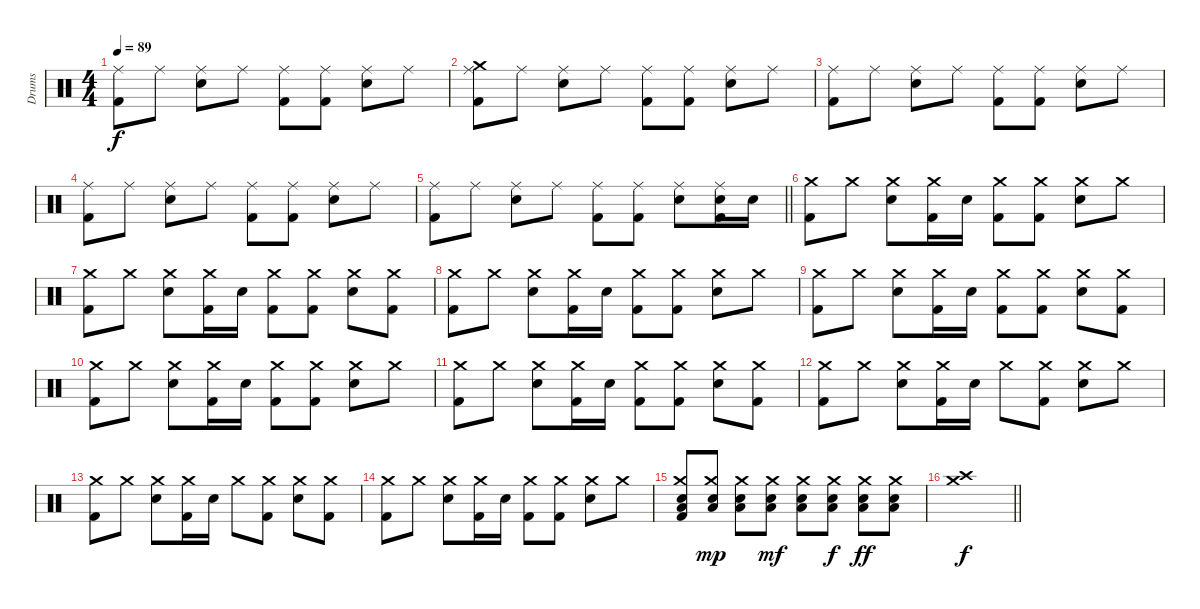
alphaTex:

\track ("Drums" "Drums") {instrument percussion}
\staff {score}
\articulation defaults
\ts (4 4)
\tempo 89
\clef neutral
\ks c
("Ride (middle)" "Kick (hit) 2").8{dy f} "Ride (middle)".8 ("Ride (middle)" "Snare (hit) 2").8 "Ride (middle)".8 ("Ride (middle)" "Kick (hit) 2").8 ("Ride (middle)" "Kick (hit) 2").8 ("Ride (middle)" "Snare (hit) 2").8 "Ride (middle)".8 |
("Crash medium (hit)" "Ride (middle)" "Kick (hit) 2").8 "Ride (middle)".8 ("Ride (middle)" "Snare (hit) 2").8 "Ride (middle)".8 ("Ride (middle)" "Kick (hit) 2").8 ("Ride (middle)" "Kick (hit) 2").8 ("Ride (middle)" "Snare (hit) 2").8 "Ride (middle)".8 |
("Ride (middle)" "Kick (hit) 2").8 "Ride (middle)".8 ("Ride (middle)" "Snare (hit) 2").8 "Ride (middle)".8 ("Ride (middle)" "Kick (hit) 2").8 ("Ride (middle)" "Kick (hit) 2").8 ("Ride (middle)" "Snare (hit) 2").8 "Ride (middle)".8 |
("Ride (middle)" "Kick (hit) 2").8 "Ride (middle)".8 ("Ride (middle)" "Snare (hit) 2").8 "Ride (middle)".8 ("Ride (middle)" "Kick (hit) 2").8 ("Ride (middle)" "Kick (hit) 2").8 ("Ride (middle)" "Snare (hit) 2").8 "Ride (middle)".8 |
\barLineRight lightlight
("Ride (middle)" "Kick (hit) 2").8 "Ride (middle)".8 ("Ride (middle)" "Snare (hit) 2").8 "Ride (middle)".8 ("Ride (middle)" "Kick (hit) 2").8 ("Ride (middle)" "Kick (hit) 2").8 ("Ride (middle)" "Snare (hit) 2").8 ("Ride (middle)" "Snare (hit) 2" "Kick (hit) 2").16 "Snare (hit) 2".16 |
("Crash medium (hit)" "Kick (hit) 2").8 "Crash medium (hit)".8 ("Crash medium (hit)" "Snare (hit) 2").8 ("Crash medium (hit)" "Kick (hit) 2").16 "Snare (hit) 2".16 ("Crash medium (hit)" "Kick (hit) 2").8 ("Crash medium (hit)" "Kick (hit) 2").8 ("Crash medium (hit)" "Snare (hit) 2").8 "Crash medium (hit)".8 |
("Crash medium (hit)" "Kick (hit) 2").8 "Crash medium (hit)".8 ("Crash medium (hit)" "Snare (hit) 2").8 ("Crash medium (hit)" "Kick (hit) 2").16 "Snare (hit) 2".16 ("Crash medium (hit)" "Kick (hit) 2").8 ("Crash medium (hit)" "Kick (hit) 2").8 ("Crash medium (hit)" "Snare (hit) 2").8 ("Crash medium (hit)" "Kick (hit) 2").8 |
("Crash medium (hit)" "Kick (hit) 2").8 "Crash medium (hit)".8 ("Crash medium (hit)" "Snare (hit) 2").8 ("Crash medium (hit)" "Kick (hit) 2").16 "Snare (hit) 2".16 ("Crash medium (hit)" "Kick (hit) 2").8 ("Crash medium (hit)" "Kick (hit) 2").8 ("Crash medium (hit)" "Snare (hit) 2").8 "Crash medium (hit)".8 |
("Crash medium (hit)" "Kick (hit) 2").8 "Crash medium (hit)".8 ("Crash medium (hit)" "Snare (hit) 2").8 ("Crash medium (hit)" "Kick (hit) 2").16 "Snare (hit) 2".16 ("Crash medium (hit)" "Kick (hit) 2").8 ("Crash medium (hit)" "Kick (hit) 2").8 ("Crash medium (hit)" "Snare (hit) 2").8 ("Crash medium (hit)" "Kick (hit) 2").8 |
("Crash medium (hit)" "Kick (hit) 2").8 "Crash medium (hit)".8 ("Crash medium (hit)" "Snare (hit) 2").8 ("Crash medium (hit)" "Kick (hit) 2").16 "Snare (hit) 2".16 ("Crash medium (hit)" "Kick (hit) 2").8 ("Crash medium (hit)" "Kick (hit) 2").8 ("Crash medium (hit)" "Snare (hit) 2").8 "Crash medium (hit)".8 |
("Crash medium (hit)" "Kick (hit) 2").8 "Crash medium (hit)".8 ("Crash medium (hit)" "Snare (hit) 2").8 ("Crash medium (hit)" "Kick (hit) 2").16 "Snare (hit) 2".16 ("Crash medium (hit)" "Kick (hit) 2").8 ("Crash medium (hit)" "Kick (hit) 2").8 ("Crash medium (hit)" "Snare (hit) 2").8 ("Crash medium (hit)" "Kick (hit) 2").8 |
("Crash medium (hit)" "Kick (hit) 2").8 "Crash medium (hit)".8 ("Crash medium (hit)" "Snare (hit) 2").8 ("Crash medium (hit)" "Kick (hit) 2").16 "Snare (hit) 2".16 "Crash medium (hit)".8 ("Crash medium (hit)" "Kick (hit) 2").8 ("Crash medium (hit)" "Snare (hit) 2").8 "Crash medium (hit)".8 |
("Crash medium (hit)" "Kick (hit) 2").8 "Crash medium (hit)".8 ("Crash medium (hit)" "Snare (hit) 2").8 ("Crash medium (hit)" "Kick (hit) 2").16 "Snare (hit) 2".16 "Crash medium (hit)".8 ("Crash medium (hit)" "Kick (hit) 2").8 ("Crash medium (hit)" "Snare (hit) 2").8 ("Crash medium (hit)" "Kick (hit) 2").8 |
("Crash medium (hit)" "Kick (hit) 2").8 "Crash medium (hit)".8 ("Crash medium (hit)" "Snare (hit) 2").8 ("Crash medium (hit)" "Kick (hit) 2").16 "Snare (hit) 2".16 ("Crash medium (hit)" "Kick (hit) 2").8 ("Crash medium (hit)" "Kick (hit) 2").8 ("Crash medium (hit)" "Snare (hit) 2").8 "Crash medium (hit)".8 |
("Crash medium (hit)" "Low Floor Tom (hit)" "Snare (hit) 2" "Kick (hit) 2").8 ("Crash medium (hit)" "Low Floor Tom (hit)" "Snare (hit) 2").8{dy mp} ("Crash medium (hit)" "Low Floor Tom (hit)" "Snare (hit) 2").8 ("Crash medium (hit)" "Low Floor Tom (hit)" "Snare (hit) 2").8{dy mf} ("Crash medium (hit)" "Low Floor Tom (hit)" "Snare (hit) 2").8 ("Crash medium (hit)" "Low Floor Tom (hit)" "Snare (hit) 2").8{dy f} ("Crash medium (hit)" "Low Floor Tom (hit)" "Snare (hit) 2").8{dy ff} ("Crash medium (hit)" "Low Floor Tom (hit)" "Snare (hit) 2").8 |
\barLineRight lightlight
("Crash medium (hit)" "Crash high (hit)").1{dy f}
